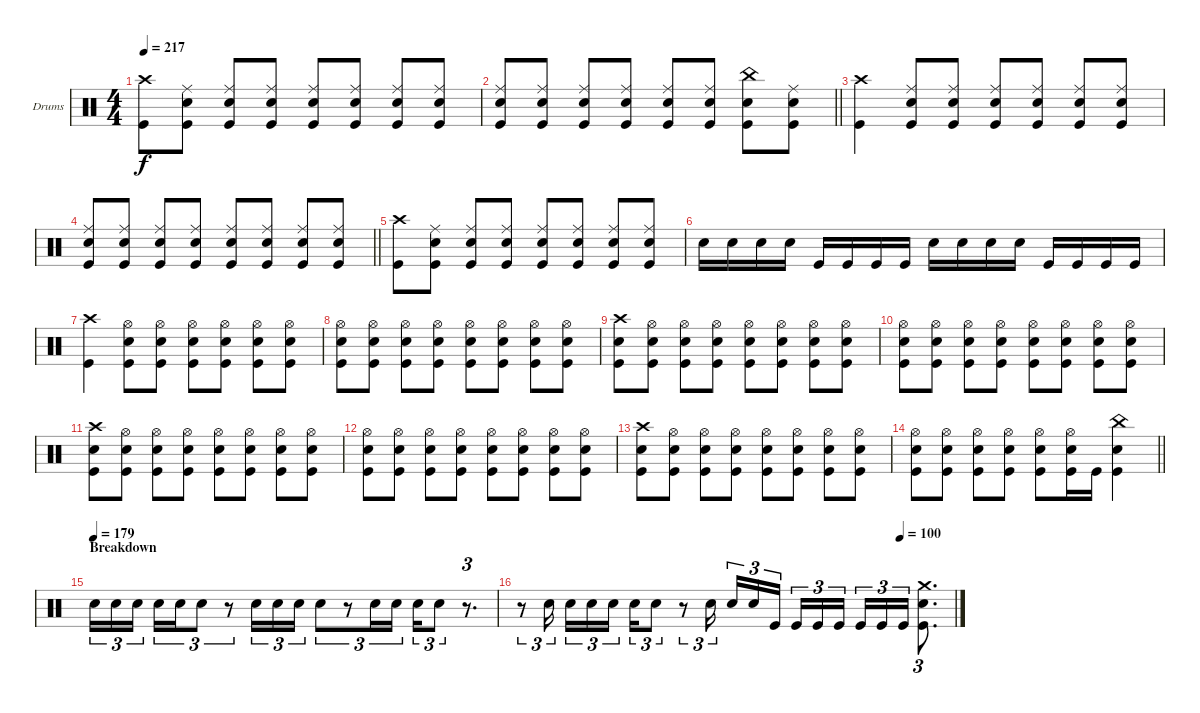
\bracketExtendMode groupsimilarinstruments
\firstSystemTrackNameOrientation horizontal
\otherSystemsTrackNameOrientation horizontal
\track ("Drumkit" "Drums") {instrument percussion}
\staff {score}
\articulation defaults
\ts (4 4)
\tempo 217
\clef neutral
\ks c
("Crash high (hit)" "Kick (hit)").8{dy f} ("Ride (middle)" "Snare (hit) 2" "Kick (hit)").8 ("Ride (middle)" "Snare (hit) 2" "Kick (hit)").8 ("Ride (middle)" "Snare (hit) 2" "Kick (hit)").8 ("Ride (middle)" "Snare (hit) 2" "Kick (hit)").8 ("Ride (middle)" "Snare (hit) 2" "Kick (hit)").8 ("Ride (middle)" "Snare (hit) 2" "Kick (hit)").8 ("Ride (middle)" "Snare (hit) 2" "Kick (hit)").8 |
\barLineRight lightlight
("Ride (middle)" "Snare (hit) 2" "Kick (hit)").8 ("Ride (middle)" "Snare (hit) 2" "Kick (hit)").8 ("Ride (middle)" "Snare (hit) 2" "Kick (hit)").8 ("Ride (middle)" "Snare (hit) 2" "Kick (hit)").8 ("Ride (middle)" "Snare (hit) 2" "Kick (hit)").8 ("Ride (middle)" "Snare (hit) 2" "Kick (hit)").8 ("China (hit)" "Snare (hit) 2" "Kick (hit)").8 ("Ride (middle)" "Snare (hit) 2" "Kick (hit)").8 |
("Crash high (hit)" "Kick (hit)").4 ("Ride (middle)" "Snare (hit) 2" "Kick (hit)").8 ("Ride (middle)" "Snare (hit) 2" "Kick (hit)").8 ("Ride (middle)" "Snare (hit) 2" "Kick (hit)").8 ("Ride (middle)" "Snare (hit) 2" "Kick (hit)").8 ("Ride (middle)" "Snare (hit) 2" "Kick (hit)").8 ("Ride (middle)" "Snare (hit) 2" "Kick (hit)").8 |
\barLineRight lightlight
("Ride (middle)" "Snare (hit) 2" "Kick (hit)").8 ("Ride (middle)" "Snare (hit) 2" "Kick (hit)").8 ("Ride (middle)" "Snare (hit) 2" "Kick (hit)").8 ("Ride (middle)" "Snare (hit) 2" "Kick (hit)").8 ("Ride (middle)" "Snare (hit) 2" "Kick (hit)").8 ("Ride (middle)" "Snare (hit) 2" "Kick (hit)").8 ("Ride (middle)" "Snare (hit) 2" "Kick (hit)").8 ("Ride (middle)" "Snare (hit) 2" "Kick (hit)").8 |
("Crash high (hit)" "Kick (hit)").8 ("Ride (middle)" "Snare (hit) 2" "Kick (hit)").8 ("Ride (middle)" "Snare (hit) 2" "Kick (hit)").8 ("Ride (middle)" "Snare (hit) 2" "Kick (hit)").8 ("Ride (middle)" "Snare (hit) 2" "Kick (hit)").8 ("Ride (middle)" "Snare (hit) 2" "Kick (hit)").8 ("Ride (middle)" "Snare (hit) 2" "Kick (hit)").8 ("Ride (middle)" "Snare (hit) 2" "Kick (hit)").8 |
"Snare (hit) 2".16 "Snare (hit) 2".16 "Snare (hit) 2".16 "Snare (hit) 2".16 "Kick (hit)".16 "Kick (hit)".16 "Kick (hit)".16 "Kick (hit)".16 "Snare (hit) 2".16 "Snare (hit) 2".16 "Snare (hit) 2".16 "Snare (hit) 2".16 "Kick (hit)".16 "Kick (hit)".16 "Kick (hit)".16 "Kick (hit)".16 |
("Crash high (hit)" "Kick (hit)").4 ("Hi-Hat (open)" "Snare (hit) 2" "Kick (hit)").8 ("Hi-Hat (open)" "Snare (hit) 2" "Kick (hit)").8 ("Hi-Hat (open)" "Snare (hit) 2" "Kick (hit)").8 ("Hi-Hat (open)" "Snare (hit) 2" "Kick (hit)").8 ("Hi-Hat (open)" "Snare (hit) 2" "Kick (hit)").8 ("Hi-Hat (open)" "Snare (hit) 2" "Kick (hit)").8 |
("Hi-Hat (open)" "Snare (hit) 2" "Kick (hit)").8 ("Hi-Hat (open)" "Snare (hit) 2" "Kick (hit)").8 ("Hi-Hat (open)" "Snare (hit) 2" "Kick (hit)").8 ("Hi-Hat (open)" "Snare (hit) 2" "Kick (hit)").8 ("Hi-Hat (open)" "Snare (hit) 2" "Kick (hit)").8 ("Hi-Hat (open)" "Snare (hit) 2" "Kick (hit)").8 ("Hi-Hat (open)" "Snare (hit) 2" "Kick (hit)").8 ("Hi-Hat (open)" "Snare (hit) 2" "Kick (hit)").8 |
("Crash high (hit)" "Snare (hit) 2" "Kick (hit)").8 ("Hi-Hat (open)" "Snare (hit) 2" "Kick (hit)").8 ("Hi-Hat (open)" "Snare (hit) 2" "Kick (hit)").8 ("Hi-Hat (open)" "Snare (hit) 2" "Kick (hit)").8 ("Hi-Hat (open)" "Snare (hit) 2" "Kick (hit)").8 ("Hi-Hat (open)" "Snare (hit) 2" "Kick (hit)").8 ("Hi-Hat (open)" "Snare (hit) 2" "Kick (hit)").8 ("Hi-Hat (open)" "Snare (hit) 2" "Kick (hit)").8 |
("Hi-Hat (open)" "Snare (hit) 2" "Kick (hit)").8 ("Hi-Hat (open)" "Snare (hit) 2" "Kick (hit)").8 ("Hi-Hat (open)" "Snare (hit) 2" "Kick (hit)").8 ("Hi-Hat (open)" "Snare (hit) 2" "Kick (hit)").8 ("Hi-Hat (open)" "Snare (hit) 2" "Kick (hit)").8 ("Hi-Hat (open)" "Snare (hit) 2" "Kick (hit)").8 ("Hi-Hat (open)" "Snare (hit) 2" "Kick (hit)").8 ("Hi-Hat (open)" "Snare (hit) 2" "Kick (hit)").8 |
("Crash high (hit)" "Snare (hit) 2" "Kick (hit)").8 ("Hi-Hat (open)" "Snare (hit) 2" "Kick (hit)").8 ("Hi-Hat (open)" "Snare (hit) 2" "Kick (hit)").8 ("Hi-Hat (open)" "Snare (hit) 2" "Kick (hit)").8 ("Hi-Hat (open)" "Snare (hit) 2" "Kick (hit)").8 ("Hi-Hat (open)" "Snare (hit) 2" "Kick (hit)").8 ("Hi-Hat (open)" "Snare (hit) 2" "Kick (hit)").8 ("Hi-Hat (open)" "Snare (hit) 2" "Kick (hit)").8 |
("Hi-Hat (open)" "Snare (hit) 2" "Kick (hit)").8 ("Hi-Hat (open)" "Snare (hit) 2" "Kick (hit)").8 ("Hi-Hat (open)" "Snare (hit) 2" "Kick (hit)").8 ("Hi-Hat (open)" "Snare (hit) 2" "Kick (hit)").8 ("Hi-Hat (open)" "Snare (hit) 2" "Kick (hit)").8 ("Hi-Hat (open)" "Snare (hit) 2" "Kick (hit)").8 ("Hi-Hat (open)" "Snare (hit) 2" "Kick (hit)").8 ("Hi-Hat (open)" "Snare (hit) 2" "Kick (hit)").8 |
("Crash high (hit)" "Snare (hit) 2" "Kick (hit)").8 ("Hi-Hat (open)" "Snare (hit) 2" "Kick (hit)").8 ("Hi-Hat (open)" "Snare (hit) 2" "Kick (hit)").8 ("Hi-Hat (open)" "Snare (hit) 2" "Kick (hit)").8 ("Hi-Hat (open)" "Snare (hit) 2" "Kick (hit)").8 ("Hi-Hat (open)" "Snare (hit) 2" "Kick (hit)").8 ("Hi-Hat (open)" "Snare (hit) 2" "Kick (hit)").8 ("Hi-Hat (open)" "Snare (hit) 2" "Kick (hit)").8 |
\barLineRight lightlight
("Hi-Hat (open)" "Snare (hit) 2" "Kick (hit)").8 ("Hi-Hat (open)" "Snare (hit) 2" "Kick (hit)").8 ("Hi-Hat (open)" "Snare (hit) 2" "Kick (hit)").8 ("Hi-Hat (open)" "Snare (hit) 2" "Kick (hit)").8 ("Hi-Hat (open)" "Snare (hit) 2" "Kick (hit)").8 ("Hi-Hat (open)" "Snare (hit) 2" "Kick (hit)").16 "Kick (hit)".16 ("China (hit)" "Snare (hit) 2" "Kick (hit)").4 |
\section ("" "Breakdown")
\tempo (179)
"Snare (hit) 2".16{tu (3 2)} "Snare (hit) 2".16{tu (3 2)} "Snare (hit) 2".16{tu (3 2)} "Snare (hit) 2".16{tu (3 2)} "Snare (hit) 2".16{tu (3 2)} "Snare (hit) 2".8{tu (3 2)} r.8{tu (3 2)} "Snare (hit) 2".16{tu (3 2)} "Snare (hit) 2".16{tu (3 2)} "Snare (hit) 2".16{tu (3 2)} "Snare (hit) 2".8{tu (3 2)} r.8{tu (3 2)} "Snare (hit) 2".16{tu (3 2)} "Snare (hit) 2".16{tu (3 2)} "Snare (hit) 2".16{tu (3 2)} "Snare (hit) 2".8{tu (3 2)} r.8{d tu (3 2)} |
\tempo (100 0.875)
r.8{tu (3 2)} "Snare (hit) 2".16{tu (3 2)} "Snare (hit) 2".16{tu (3 2)} "Snare (hit) 2".16{tu (3 2)} "Snare (hit) 2".16{tu (3 2)} "Snare (hit) 2".16{tu (3 2)} "Snare (hit) 2".8{tu (3 2)} r.8{tu (3 2)} "Snare (hit) 2".16{tu (3 2)} "Snare (hit) 2".16{tu (3 2)} "Snare (hit) 2".16{tu (3 2)} "Kick (hit)".16{tu (3 2)} "Kick (hit)".16{tu (3 2)} "Kick (hit)".16{tu (3 2)} "Kick (hit)".16{tu (3 2)} "Kick (hit)".16{tu (3 2)} "Kick (hit)".16{tu (3 2)} "Kick (hit)".16{tu (3 2)} ("Crash medium (hit)" "Snare (hit) 2" "Kick (hit)").8{d tu (3 2)}
